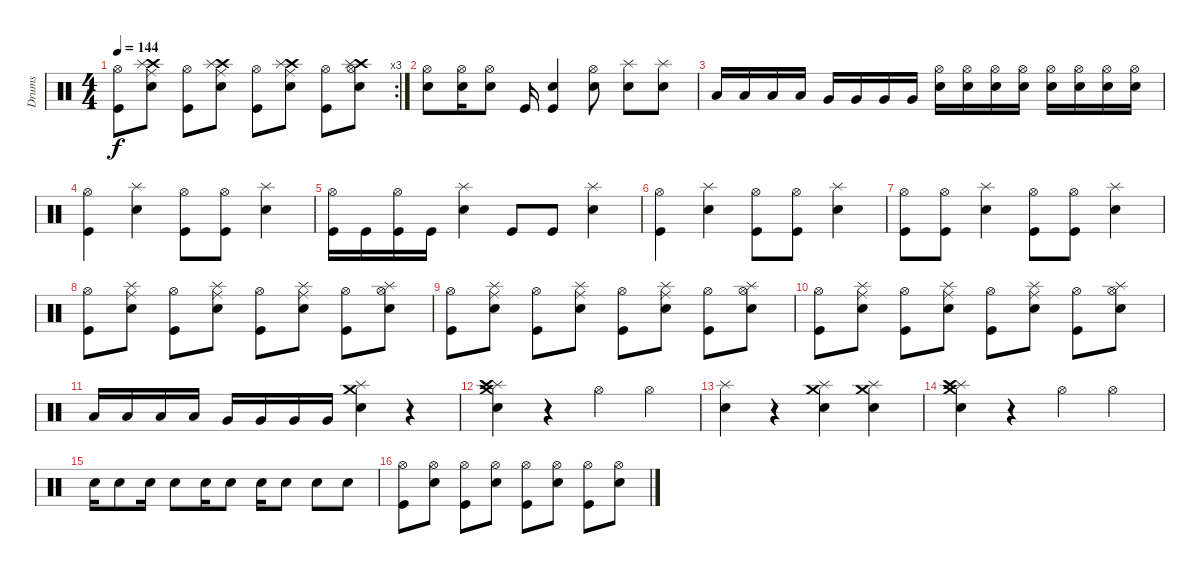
\track ("Drums" "Drums") {instrument percussion}
\staff {score}
\articulation defaults
\rc 3
\ts (4 4)
\tempo 144
\clef neutral
\ks c
("Kick (hit)" "Hi-Hat (open)").8{dy f} ("Snare (hit) 2" "Ride (middle)" "Crash high (hit)" "Splash (hit)").8 ("Kick (hit)" "Hi-Hat (open)").8 ("Snare (hit) 2" "Ride (middle)" "Crash high (hit)" "Splash (hit)").8 ("Kick (hit)" "Hi-Hat (open)").8 ("Snare (hit) 2" "Ride (middle)" "Crash high (hit)" "Splash (hit)").8 ("Kick (hit)" "Hi-Hat (open)").8 ("Snare (hit) 2" "Hi-Hat (open)" "Crash high (hit)" "Splash (hit)").8 |
("Snare (hit) 2" "Hi-Hat (open)").8 ("Snare (hit) 2" "Hi-Hat (open)").16 ("Snare (hit) 2" "Hi-Hat (open)").8 "Kick (hit)".16 ("Kick (hit)" "Snare (hit) 2").4 ("Snare (hit) 2" "Hi-Hat (open)").8 ("Snare (hit) 2" "Splash (hit)").8 ("Snare (hit) 2" "Splash (hit)").8 |
"Low Tom (hit)".16 "Low Tom (hit)".16 "Low Tom (hit)".16 "Low Tom (hit)".16 "Very Low Tom (hit)".16 "Very Low Tom (hit)".16 "Very Low Tom (hit)".16 "Very Low Tom (hit)".16 ("Snare (hit) 2" "Hi-Hat (open)").16 ("Snare (hit) 2" "Hi-Hat (open)").16 ("Snare (hit) 2" "Hi-Hat (open)").16 ("Snare (hit) 2" "Hi-Hat (open)").16 ("Snare (hit) 2" "Hi-Hat (open)").16 ("Snare (hit) 2" "Hi-Hat (open)").16 ("Snare (hit) 2" "Hi-Hat (open)").16 ("Snare (hit) 2" "Hi-Hat (open)").16 |
("Kick (hit)" "Hi-Hat (open)").4 ("Snare (hit) 2" "Splash (hit)").4 ("Kick (hit)" "Hi-Hat (open)").8 ("Kick (hit)" "Hi-Hat (open)").8 ("Snare (hit) 2" "Splash (hit)").4 |
("Kick (hit)" "Hi-Hat (open)").16 "Kick (hit)".16 ("Kick (hit)" "Hi-Hat (open)").16 "Kick (hit)".16 ("Snare (hit) 2" "Splash (hit)").4 "Kick (hit)".8 "Kick (hit)".8 ("Snare (hit) 2" "Splash (hit)").4 |
("Kick (hit)" "Hi-Hat (open)").4 ("Snare (hit) 2" "Splash (hit)").4 ("Kick (hit)" "Hi-Hat (open)").8 ("Kick (hit)" "Hi-Hat (open)").8 ("Snare (hit) 2" "Splash (hit)").4 |
("Kick (hit)" "Hi-Hat (open)").8 ("Kick (hit)" "Hi-Hat (open)").8 ("Snare (hit) 2" "Splash (hit)").4 ("Kick (hit)" "Hi-Hat (open)").8 ("Kick (hit)" "Hi-Hat (open)").8 ("Snare (hit) 2" "Splash (hit)").4 |
("Kick (hit)" "Hi-Hat (open)").8 ("Snare (hit) 2" "Ride (middle)" "Splash (hit)").8 ("Kick (hit)" "Hi-Hat (open)").8 ("Snare (hit) 2" "Ride (middle)" "Splash (hit)").8 ("Kick (hit)" "Hi-Hat (open)").8 ("Snare (hit) 2" "Ride (middle)" "Splash (hit)").8 ("Kick (hit)" "Hi-Hat (open)").8 ("Snare (hit) 2" "Hi-Hat (open)" "Splash (hit)").8 |
("Kick (hit)" "Hi-Hat (open)").8 ("Snare (hit) 2" "Ride (middle)" "Splash (hit)").8 ("Kick (hit)" "Hi-Hat (open)").8 ("Snare (hit) 2" "Ride (middle)" "Splash (hit)").8 ("Kick (hit)" "Hi-Hat (open)").8 ("Snare (hit) 2" "Ride (middle)" "Splash (hit)").8 ("Kick (hit)" "Hi-Hat (open)").8 ("Snare (hit) 2" "Hi-Hat (open)" "Splash (hit)").8 |
("Kick (hit)" "Hi-Hat (open)").8 ("Snare (hit) 2" "Ride (middle)" "Splash (hit)").8 ("Kick (hit)" "Hi-Hat (open)").8 ("Snare (hit) 2" "Ride (middle)" "Splash (hit)").8 ("Kick (hit)" "Hi-Hat (open)").8 ("Snare (hit) 2" "Ride (middle)" "Splash (hit)").8 ("Kick (hit)" "Hi-Hat (open)").8 ("Snare (hit) 2" "Hi-Hat (open)" "Splash (hit)").8 |
"Low Tom (hit)".16 "Low Tom (hit)".16 "Low Tom (hit)".16 "Low Tom (hit)".16 "Very Low Tom (hit)".16 "Very Low Tom (hit)".16 "Very Low Tom (hit)".16 "Very Low Tom (hit)".16 ("Snare (hit) 2" "Crash medium (hit)" "Splash (hit)").4 r.4 |
("Snare (hit) 2" "Splash (hit)" "Crash medium (hit)" "Crash high (hit)").4 r.4 "Hi-Hat (open)".4 "Hi-Hat (open)".4 |
("Snare (hit) 2" "Splash (hit)").4 r.4 ("Snare (hit) 2" "Crash medium (hit)" "Splash (hit)").4 ("Snare (hit) 2" "Crash medium (hit)" "Splash (hit)").4 |
("Snare (hit) 2" "Splash (hit)" "Crash medium (hit)" "Crash high (hit)").4 r.4 "Hi-Hat (open)".4 "Hi-Hat (open)".4 |
"Snare (hit) 2".16 "Snare (hit) 2".8 "Snare (hit) 2".16 "Snare (hit) 2".8 "Snare (hit) 2".16 "Snare (hit) 2".8 "Snare (hit) 2".16 "Snare (hit) 2".8 "Snare (hit) 2".8 "Snare (hit) 2".8 |
("Kick (hit)" "Hi-Hat (open)").8 ("Snare (hit) 2" "Hi-Hat (open)").8 ("Kick (hit)" "Hi-Hat (open)").8 ("Snare (hit) 2" "Hi-Hat (open)").8 ("Kick (hit)" "Hi-Hat (open)").8 ("Snare (hit) 2" "Hi-Hat (open)").8 ("Kick (hit)" "Hi-Hat (open)").8 ("Snare (hit) 2" "Hi-Hat (open)").8
